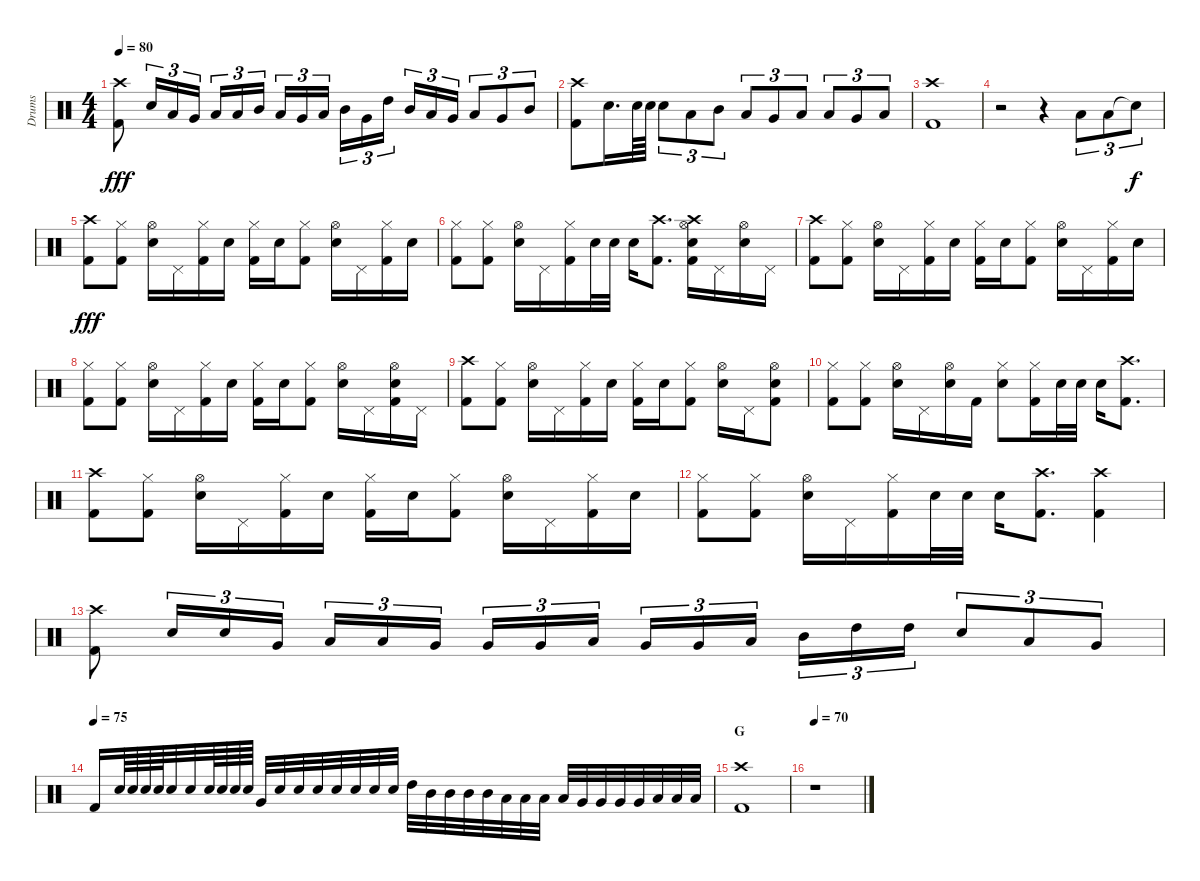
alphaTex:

\track ("Drums" "Drums") {instrument percussion}
\staff {score}
\articulation defaults
\ts (4 4)
\tempo 80
\clef neutral
\ks c
("Crash high (hit)" "Kick (hit) 2").8{dy fff} "Snare (hit) 2".16{tu (3 2)} "Low Tom (hit)".16{tu (3 2)} "Very Low Tom (hit)".16{tu (3 2)} "Low Tom (hit)".16{tu (3 2)} "Low Floor Tom (hit)".16{tu (3 2)} "Mid Tom (hit)".16{tu (3 2) beam splitsecondary} "Low Tom (hit)".16{tu (3 2)} "Very Low Tom (hit)".16{tu (3 2)} "Low Tom (hit)".16{tu (3 2)} "Mid Tom (hit)".16{tu (3 2)} "Very Low Tom (hit)".16{tu (3 2)} "High Tom (hit)".16{tu (3 2) beam splitsecondary} "Mid Tom (hit)".16{tu (3 2)} "Low Tom (hit)".16{tu (3 2)} "Very Low Tom (hit)".16{tu (3 2)} "Low Floor Tom (hit)".8{tu (3 2)} "Very Low Tom (hit)".8{tu (3 2)} "Mid Tom (hit)".8{tu (3 2)} |
("Crash high (hit)" "Kick (hit) 2").8 "Snare (hit) 2".16{d} "Snare (hit) 2".64 "Snare (hit) 2".64 "Snare (hit) 2".8{tu (3 2)} "Low Tom (hit)".8{tu (3 2)} "Mid Tom (hit)".8{tu (3 2)} "Low Tom (hit)".8{tu (3 2)} "Very Low Tom (hit)".8{tu (3 2)} "Low Floor Tom (hit)".8{tu (3 2)} "Low Floor Tom (hit)".8{tu (3 2)} "Very Low Tom (hit)".8{tu (3 2)} "Low Tom (hit)".8{tu (3 2)} |
("Crash high (hit)" "Kick (hit) 2").1 |
r.2 r.4 "Low Floor Tom (hit)".8{tu (3 2)} "Low Tom (hit)".8{tu (3 2)} "Snare (hit)"{t}.8{tu (3 2) dy f} |
("Crash high (hit)" "Kick (hit) 2").8{dy fff} ("Hi-Hat (closed)" "Kick (hit) 2").8 ("Hi-Hat (open)" "Snare (hit) 2").16 "Pedal Hi-Hat (hit)".16 ("Hi-Hat (closed)" "Kick (hit) 2").16 "Snare (hit) 2".16 ("Hi-Hat (closed)" "Kick (hit) 2").16 "Snare (hit) 2".16 ("Hi-Hat (closed)" "Kick (hit) 2").8 ("Hi-Hat (open)" "Snare (hit) 2").16 "Pedal Hi-Hat (hit)".16 ("Hi-Hat (closed)" "Kick (hit) 2").16 "Snare (hit) 2".16 |
("Hi-Hat (closed)" "Kick (hit) 2").8 ("Hi-Hat (closed)" "Kick (hit) 2").8 ("Hi-Hat (open)" "Snare (hit) 2").16 "Pedal Hi-Hat (hit)".16 ("Hi-Hat (closed)" "Kick (hit) 2").16 "Snare (hit) 2".32 "Snare (hit) 2".32 "Snare (hit) 2".16 ("Crash high (hit)" "Kick (hit) 2").8{d} ("Hi-Hat (open)" "Crash high (hit)" "Snare (hit) 2" "Kick (hit) 2").16 "Pedal Hi-Hat (hit)".16 ("Hi-Hat (open)" "Snare (hit) 2").16 "Pedal Hi-Hat (hit)".16 |
("Crash high (hit)" "Kick (hit) 2").8 ("Hi-Hat (closed)" "Kick (hit) 2").8 ("Hi-Hat (open)" "Snare (hit) 2").16 "Pedal Hi-Hat (hit)".16 ("Hi-Hat (closed)" "Kick (hit) 2").16 "Snare (hit) 2".16 ("Hi-Hat (closed)" "Kick (hit) 2").16 "Snare (hit) 2".16 ("Hi-Hat (closed)" "Kick (hit) 2").8 ("Hi-Hat (open)" "Snare (hit) 2").16 "Pedal Hi-Hat (hit)".16 ("Hi-Hat (closed)" "Kick (hit) 2").16 "Snare (hit) 2".16 |
("Hi-Hat (closed)" "Kick (hit) 2").8 ("Hi-Hat (closed)" "Kick (hit) 2").8 ("Hi-Hat (open)" "Snare (hit) 2").16 "Pedal Hi-Hat (hit)".16 ("Hi-Hat (closed)" "Kick (hit) 2").16 "Snare (hit) 2".16 ("Hi-Hat (closed)" "Kick (hit) 2").16 "Snare (hit) 2".16 ("Hi-Hat (closed)" "Kick (hit) 2").8 ("Hi-Hat (open)" "Snare (hit) 2").16 "Pedal Hi-Hat (hit)".16 ("Hi-Hat (open)" "Snare (hit) 2" "Kick (hit) 2").16 "Pedal Hi-Hat (hit)".16 |
("Crash high (hit)" "Kick (hit) 2").8 ("Hi-Hat (closed)" "Kick (hit) 2").8 ("Hi-Hat (open)" "Snare (hit) 2").16 "Pedal Hi-Hat (hit)".16 ("Hi-Hat (closed)" "Kick (hit) 2").16 "Snare (hit) 2".16 ("Hi-Hat (closed)" "Kick (hit) 2").16 "Snare (hit) 2".16 ("Hi-Hat (closed)" "Kick (hit) 2").8 ("Hi-Hat (open)" "Snare (hit) 2").16 "Pedal Hi-Hat (hit)".16 ("Hi-Hat (open)" "Snare (hit) 2" "Kick (hit) 2").8 |
("Hi-Hat (closed)" "Kick (hit) 2").8 ("Hi-Hat (closed)" "Kick (hit) 2").8 ("Hi-Hat (open)" "Snare (hit) 2").16 "Pedal Hi-Hat (hit)".16 ("Hi-Hat (open)" "Snare (hit) 2").16 "Kick (hit) 2".16 ("Hi-Hat (closed)" "Snare (hit) 2").8 ("Hi-Hat (closed)" "Kick (hit) 2").16 "Snare (hit) 2".32 "Snare (hit) 2".32 "Snare (hit) 2".16 ("Crash high (hit)" "Kick (hit) 2").8{d} |
("Crash high (hit)" "Kick (hit) 2").8 ("Hi-Hat (closed)" "Kick (hit) 2").8 ("Hi-Hat (open)" "Snare (hit) 2").16 "Pedal Hi-Hat (hit)".16 ("Hi-Hat (closed)" "Kick (hit) 2").16 "Snare (hit) 2".16 ("Hi-Hat (closed)" "Kick (hit) 2").16 "Snare (hit) 2".16 ("Hi-Hat (closed)" "Kick (hit) 2").8 ("Hi-Hat (open)" "Snare (hit) 2").16 "Pedal Hi-Hat (hit)".16 ("Hi-Hat (closed)" "Kick (hit) 2").16 "Snare (hit) 2".16 |
("Hi-Hat (closed)" "Kick (hit) 2").8 ("Hi-Hat (closed)" "Kick (hit) 2").8 ("Hi-Hat (open)" "Snare (hit) 2").16 "Pedal Hi-Hat (hit)".16 ("Hi-Hat (closed)" "Kick (hit) 2").16 "Snare (hit) 2".32 "Snare (hit) 2".32 "Snare (hit) 2".16 ("Crash high (hit)" "Kick (hit) 2").8{d} ("Crash high (hit)" "Kick (hit) 2").4 |
("Crash high (hit)" "Kick (hit) 2").8 "Snare (hit) 2".16{tu (3 2)} "Snare (hit) 2".16{tu (3 2)} "Very Low Tom (hit)".16{tu (3 2)} "Low Tom (hit)".16{tu (3 2)} "Low Tom (hit)".16{tu (3 2)} "Very Low Tom (hit)".16{tu (3 2) beam splitsecondary} "Very Low Tom (hit)".16{tu (3 2)} "Very Low Tom (hit)".16{tu (3 2)} "Low Floor Tom (hit)".16{tu (3 2)} "Very Low Tom (hit)".16{tu (3 2)} "Very Low Tom (hit)".16{tu (3 2)} "Low Tom (hit)".16{tu (3 2) beam splitsecondary} "Mid Tom (hit)".16{tu (3 2)} "High Tom (hit)".16{tu (3 2)} "High Tom (hit)".16{tu (3 2)} "Snare (hit) 2".8{tu (3 2)} "Low Tom (hit)".8{tu (3 2)} "Very Low Tom (hit)".8{tu (3 2)} |
\tempo (75)
"Kick (hit) 2".16 "Snare (hit) 2".64 "Snare (hit) 2".64 "Snare (hit) 2".64 "Snare (hit) 2".64 "Snare (hit) 2".32 "Snare (hit) 2".32 "Snare (hit) 2".64 "Snare (hit) 2".64 "Snare (hit) 2".64 "Snare (hit) 2".64 "Very Low Tom (hit)".32 "Snare (hit) 2".32 "Snare (hit) 2".32 "Snare (hit) 2".32 "Snare (hit) 2".32 "Snare (hit) 2".32 "Snare (hit) 2".32 "Snare (hit) 2".32 "High Tom (hit)".32 "Mid Tom (hit)".32 "Mid Tom (hit)".32 "Mid Tom (hit)".32 "Mid Tom (hit)".32 "Low Tom (hit)".32 "Low Tom (hit)".32 "Low Tom (hit)".32 "Low Tom (hit)".32 "Very Low Tom (hit)".32 "Very Low Tom (hit)".32 "Very Low Tom (hit)".32 "Very Low Tom (hit)".32 "Low Floor Tom (hit)".32 "Low Floor Tom (hit)".32 "Low Floor Tom (hit)".32 |
\section ("" "G")
("Crash high (hit)" "Kick (hit) 2").1 |
\tempo 70
r.1
